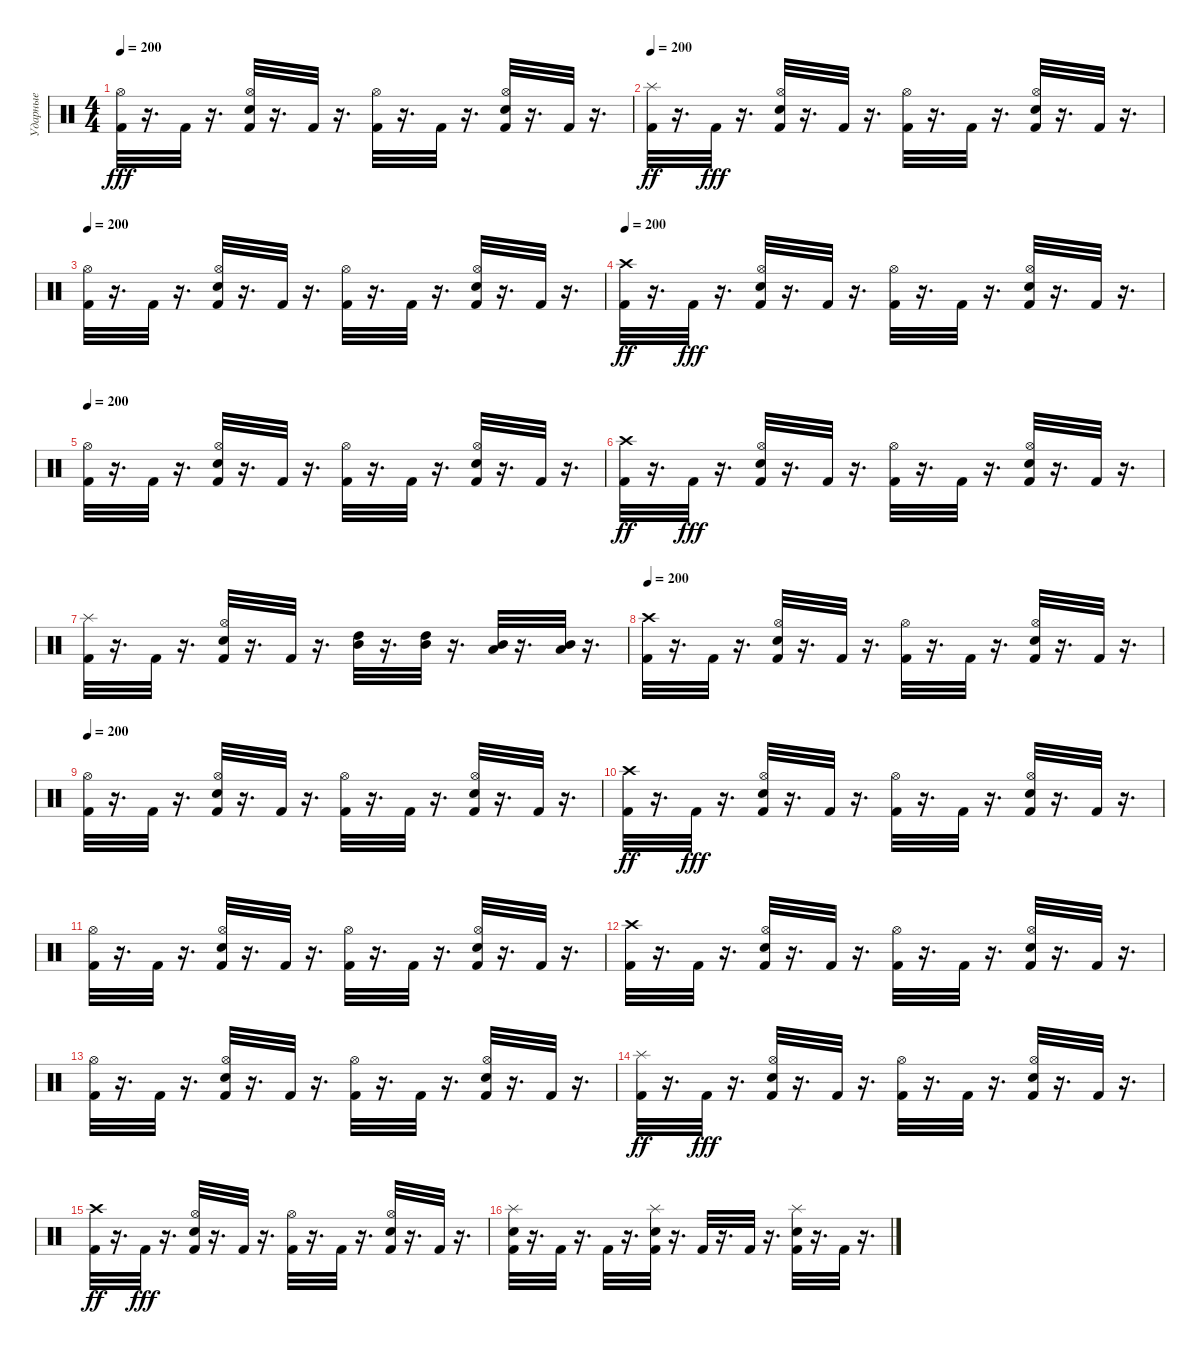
\track ("Ударные" "Ударные") {instrument percussion}
\staff {score}
\articulation defaults
\ts (4 4)
\tempo 200
\clef neutral
\ks c
("Kick (hit) 2" "Hi-Hat (open)").32{dy fff} r.16{d} "Kick (hit) 2".32 r.16{d} ("Kick (hit) 2" "Hi-Hat (open)" "Snare (hit) 2").32 r.16{d} "Kick (hit) 2".32 r.16{d} ("Kick (hit) 2" "Hi-Hat (open)").32 r.16{d} "Kick (hit) 2".32 r.16{d} ("Kick (hit) 2" "Snare (hit) 2" "Hi-Hat (open)").32 r.16{d} "Kick (hit) 2".32 r.16{d} |
\tempo 200
("Kick (hit) 2" "Splash (hit)").32{dy ff} r.16{d} "Kick (hit) 2".32{dy fff} r.16{d} ("Kick (hit) 2" "Snare (hit) 2" "Hi-Hat (open)").32 r.16{d} "Kick (hit) 2".32 r.16{d} ("Hi-Hat (open)" "Kick (hit) 2").32 r.16{d} "Kick (hit) 2".32 r.16{d} ("Kick (hit) 2" "Hi-Hat (open)" "Snare (hit) 2").32 r.16{d} "Kick (hit) 2".32 r.16{d} |
\tempo 200
("Hi-Hat (open)" "Kick (hit) 2").32 r.16{d} "Kick (hit) 2".32 r.16{d} ("Kick (hit) 2" "Snare (hit) 2" "Hi-Hat (open)").32 r.16{d} "Kick (hit) 2".32 r.16{d} ("Kick (hit) 2" "Hi-Hat (open)").32 r.16{d} "Kick (hit) 2".32 r.16{d} ("Kick (hit) 2" "Snare (hit) 2" "Hi-Hat (open)").32 r.16{d} "Kick (hit) 2".32 r.16{d} |
\tempo 200
("Kick (hit) 2" "Crash high (hit)").32{dy ff} r.16{d} "Kick (hit) 2".32{dy fff} r.16{d} ("Kick (hit) 2" "Snare (hit) 2" "Hi-Hat (open)").32 r.16{d} "Kick (hit) 2".32 r.16{d} ("Hi-Hat (open)" "Kick (hit) 2").32 r.16{d} "Kick (hit) 2".32 r.16{d} ("Kick (hit) 2" "Snare (hit) 2" "Hi-Hat (open)").32 r.16{d} "Kick (hit) 2".32 r.16{d} |
\tempo 200
("Hi-Hat (open)" "Kick (hit) 2").32 r.16{d} "Kick (hit) 2".32 r.16{d} ("Kick (hit) 2" "Snare (hit) 2" "Hi-Hat (open)").32 r.16{d} "Kick (hit) 2".32 r.16{d} ("Hi-Hat (open)" "Kick (hit) 2").32 r.16{d} "Kick (hit) 2".32 r.16{d} ("Kick (hit) 2" "Snare (hit) 2" "Hi-Hat (open)").32 r.16{d} "Kick (hit) 2".32 r.16{d} |
("Kick (hit) 2" "Crash high (hit)").32{dy ff} r.16{d} "Kick (hit) 2".32{dy fff} r.16{d} ("Kick (hit) 2" "Snare (hit) 2" "Hi-Hat (open)").32 r.16{d} "Kick (hit) 2".32 r.16{d} ("Kick (hit) 2" "Hi-Hat (open)").32 r.16{d} "Kick (hit) 2".32 r.16{d} ("Kick (hit) 2" "Snare (hit) 2" "Hi-Hat (open)").32 r.16{d} "Kick (hit) 2".32 r.16{d} |
("Splash (hit)" "Kick (hit) 2").32 r.16{d} "Kick (hit) 2".32 r.16{d} ("Kick (hit) 2" "Hi-Hat (open)" "Snare (hit) 2").32 r.16{d} "Kick (hit) 2".32 r.16{d} ("High Tom (hit)" "Mid Tom (hit)").32 r.16{d} ("Mid Tom (hit)" "High Tom (hit)").32 r.16{d} ("Low Tom (hit)" "Mid Tom (hit)").32 r.16{d} ("Mid Tom (hit)" "Low Tom (hit)").32 r.16{d} |
\tempo 200
("Crash high (hit)" "Kick (hit) 2").32 r.16{d} "Kick (hit) 2".32 r.16{d} ("Kick (hit) 2" "Snare (hit) 2" "Hi-Hat (open)").32 r.16{d} "Kick (hit) 2".32 r.16{d} ("Hi-Hat (open)" "Kick (hit) 2").32 r.16{d} "Kick (hit) 2".32 r.16{d} ("Kick (hit) 2" "Snare (hit) 2" "Hi-Hat (open)").32 r.16{d} "Kick (hit) 2".32 r.16{d} |
\tempo 200
("Kick (hit) 2" "Hi-Hat (open)").32 r.16{d} "Kick (hit) 2".32 r.16{d} ("Kick (hit) 2" "Hi-Hat (open)" "Snare (hit) 2").32 r.16{d} "Kick (hit) 2".32 r.16{d} ("Hi-Hat (open)" "Kick (hit) 2").32 r.16{d} "Kick (hit) 2".32 r.16{d} ("Kick (hit) 2" "Hi-Hat (open)" "Snare (hit) 2").32 r.16{d} "Kick (hit) 2".32 r.16{d} |
("Kick (hit) 2" "Crash high (hit)").32{dy ff} r.16{d} "Kick (hit) 2".32{dy fff} r.16{d} ("Hi-Hat (open)" "Snare (hit) 2" "Kick (hit) 2").32 r.16{d} "Kick (hit) 2".32 r.16{d} ("Kick (hit) 2" "Hi-Hat (open)").32 r.16{d} "Kick (hit) 2".32 r.16{d} ("Kick (hit) 2" "Snare (hit) 2" "Hi-Hat (open)").32 r.16{d} "Kick (hit) 2".32 r.16{d} |
("Kick (hit) 2" "Hi-Hat (open)").32 r.16{d} "Kick (hit) 2".32 r.16{d} ("Kick (hit) 2" "Snare (hit) 2" "Hi-Hat (open)").32 r.16{d} "Kick (hit) 2".32 r.16{d} ("Hi-Hat (open)" "Kick (hit) 2").32 r.16{d} "Kick (hit) 2".32 r.16{d} ("Kick (hit) 2" "Hi-Hat (open)" "Snare (hit) 2").32 r.16{d} "Kick (hit) 2".32 r.16{d} |
("Crash high (hit)" "Kick (hit) 2").32 r.16{d} "Kick (hit) 2".32 r.16{d} ("Kick (hit) 2" "Hi-Hat (open)" "Snare (hit) 2").32 r.16{d} "Kick (hit) 2".32 r.16{d} ("Hi-Hat (open)" "Kick (hit) 2").32 r.16{d} "Kick (hit) 2".32 r.16{d} ("Kick (hit) 2" "Hi-Hat (open)" "Snare (hit) 2").32 r.16{d} "Kick (hit) 2".32 r.16{d} |
("Hi-Hat (open)" "Kick (hit) 2").32 r.16{d} "Kick (hit) 2".32 r.16{d} ("Kick (hit) 2" "Hi-Hat (open)" "Snare (hit) 2").32 r.16{d} "Kick (hit) 2".32 r.16{d} ("Hi-Hat (open)" "Kick (hit) 2").32 r.16{d} "Kick (hit) 2".32 r.16{d} ("Kick (hit) 2" "Snare (hit) 2" "Hi-Hat (open)").32 r.16{d} "Kick (hit) 2".32 r.16{d} |
("Kick (hit) 2" "Splash (hit)").32{dy ff} r.16{d} "Kick (hit) 2".32{dy fff} r.16{d} ("Kick (hit) 2" "Snare (hit) 2" "Hi-Hat (open)").32 r.16{d} "Kick (hit) 2".32 r.16{d} ("Kick (hit) 2" "Hi-Hat (open)").32 r.16{d} "Kick (hit) 2".32 r.16{d} ("Kick (hit) 2" "Snare (hit) 2" "Hi-Hat (open)").32 r.16{d} "Kick (hit) 2".32 r.16{d} |
("Kick (hit) 2" "Crash high (hit)").32{dy ff} r.16{d} "Kick (hit) 2".32{dy fff} r.16{d} ("Kick (hit) 2" "Snare (hit) 2" "Hi-Hat (open)").32 r.16{d} "Kick (hit) 2".32 r.16{d} ("Kick (hit) 2" "Hi-Hat (open)").32 r.16{d} "Kick (hit) 2".32 r.16{d} ("Kick (hit) 2" "Hi-Hat (open)" "Snare (hit) 2").32 r.16{d} "Kick (hit) 2".32 r.16{d} |
("Kick (hit) 2" "Splash (hit)" "Snare (hit) 2").32 r.16{d} "Kick (hit) 2".32 r.16{d} "Kick (hit) 2".32 r.16{d} ("Kick (hit) 2" "Splash (hit)" "Snare (hit) 2").32 r.16{d} "Kick (hit) 2".32 r.16{d} "Kick (hit) 2".32 r.16{d} ("Kick (hit) 2" "Splash (hit)" "Snare (hit) 2").32 r.16{d} "Kick (hit) 2".32 r.16{d}
